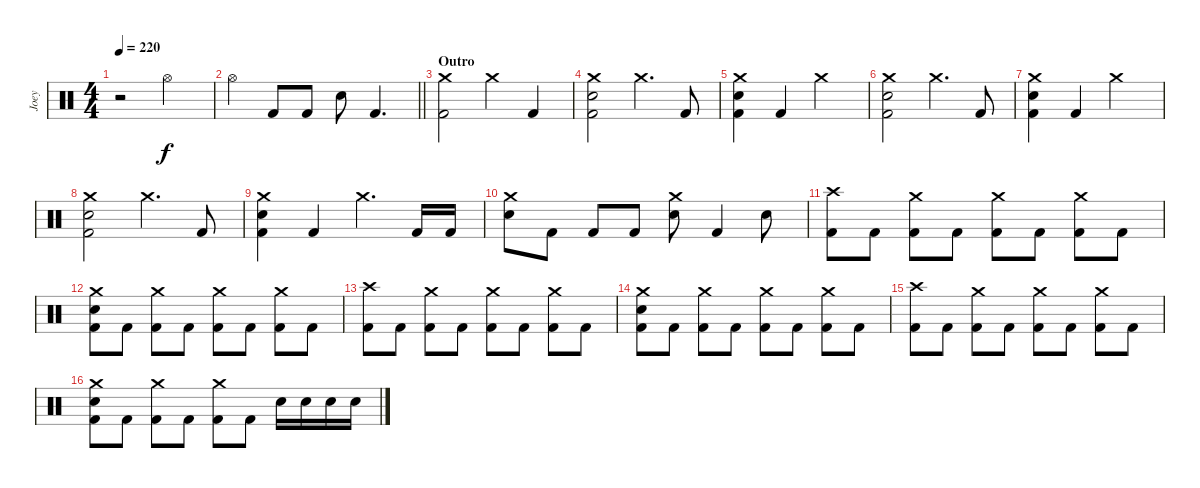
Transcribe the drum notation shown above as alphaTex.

\track ("Joey" "Joey") {instrument percussion}
\staff {score}
\articulation defaults
\ts (4 4)
\tempo 220
\clef neutral
\ks c
r.2{dy f} "Hi-Hat (open)".2 |
\barLineRight lightlight "Hi-Hat (open)".4 "Kick (hit) 2".8 "Kick (hit) 2".8 "Electric Snare (hit)".8 "Kick (hit) 2".4{d}
|
\section ("" "Outro")
("Crash medium (hit)" "Kick (hit) 2").2 "Crash medium (hit)".4 "Kick (hit) 2".4 |
("Crash medium (hit)" "Electric Snare (hit)" "Kick (hit) 2").2 "Crash medium (hit)".4{d} "Kick (hit) 2".8 |
("Crash medium (hit)" "Electric Snare (hit)" "Kick (hit) 2").4 "Kick (hit) 2".4 "Crash medium (hit)".2 |
("Crash medium (hit)" "Electric Snare (hit)" "Kick (hit) 2").2 "Crash medium (hit)".4{d} "Kick (hit) 2".8 |
("Crash medium (hit)" "Electric Snare (hit)" "Kick (hit) 2").4 "Kick (hit) 2".4 "Crash medium (hit)".2 |
("Crash medium (hit)" "Electric Snare (hit)" "Kick (hit) 2").2 "Crash medium (hit)".4{d} "Kick (hit) 2".8 |
("Crash medium (hit)" "Electric Snare (hit)" "Kick (hit) 2").4 "Kick (hit) 2".4 "Crash medium (hit)".4{d} "Kick (hit) 2".16 "Kick (hit) 2".16 |
("Crash medium (hit)" "Electric Snare (hit)").8 "Kick (hit) 2".8 "Kick (hit) 2".8 "Kick (hit) 2".8 ("Crash medium (hit)" "Electric Snare (hit)").8 "Kick (hit) 2".4 "Electric Snare (hit)".8 |
("Crash high (hit)" "Kick (hit) 2").8 "Kick (hit) 2".8 ("Crash medium (hit)" "Kick (hit) 2").8 "Kick (hit) 2".8 ("Crash medium (hit)" "Kick (hit) 2").8 "Kick (hit) 2".8 ("Crash medium (hit)" "Kick (hit) 2").8 "Kick (hit) 2".8 |
("Crash medium (hit)" "Electric Snare (hit)" "Kick (hit) 2").8 "Kick (hit) 2".8 ("Crash medium (hit)" "Kick (hit) 2").8 "Kick (hit) 2".8 ("Crash medium (hit)" "Kick (hit) 2").8 "Kick (hit) 2".8 ("Crash medium (hit)" "Kick (hit) 2").8 "Kick (hit) 2".8 |
("Crash high (hit)" "Kick (hit) 2").8 "Kick (hit) 2".8 ("Crash medium (hit)" "Kick (hit) 2").8 "Kick (hit) 2".8 ("Crash medium (hit)" "Kick (hit) 2").8 "Kick (hit) 2".8 ("Crash medium (hit)" "Kick (hit) 2").8 "Kick (hit) 2".8 |
("Crash medium (hit)" "Electric Snare (hit)" "Kick (hit) 2").8 "Kick (hit) 2".8 ("Crash medium (hit)" "Kick (hit) 2").8 "Kick (hit) 2".8 ("Crash medium (hit)" "Kick (hit) 2").8 "Kick (hit) 2".8 ("Crash medium (hit)" "Kick (hit) 2").8 "Kick (hit) 2".8 |
("Crash high (hit)" "Kick (hit) 2").8 "Kick (hit) 2".8 ("Crash medium (hit)" "Kick (hit) 2").8 "Kick (hit) 2".8 ("Crash medium (hit)" "Kick (hit) 2").8 "Kick (hit) 2".8 ("Crash medium (hit)" "Kick (hit) 2").8 "Kick (hit) 2".8 |
("Crash medium (hit)" "Electric Snare (hit)" "Kick (hit) 2").8 "Kick (hit) 2".8 ("Crash medium (hit)" "Kick (hit) 2").8 "Kick (hit) 2".8 ("Crash medium (hit)" "Kick (hit) 2").8 "Kick (hit) 2".8 "Electric Snare (hit)".16 "Electric Snare (hit)".16 "Electric Snare (hit)".16 "Electric Snare (hit)".16
